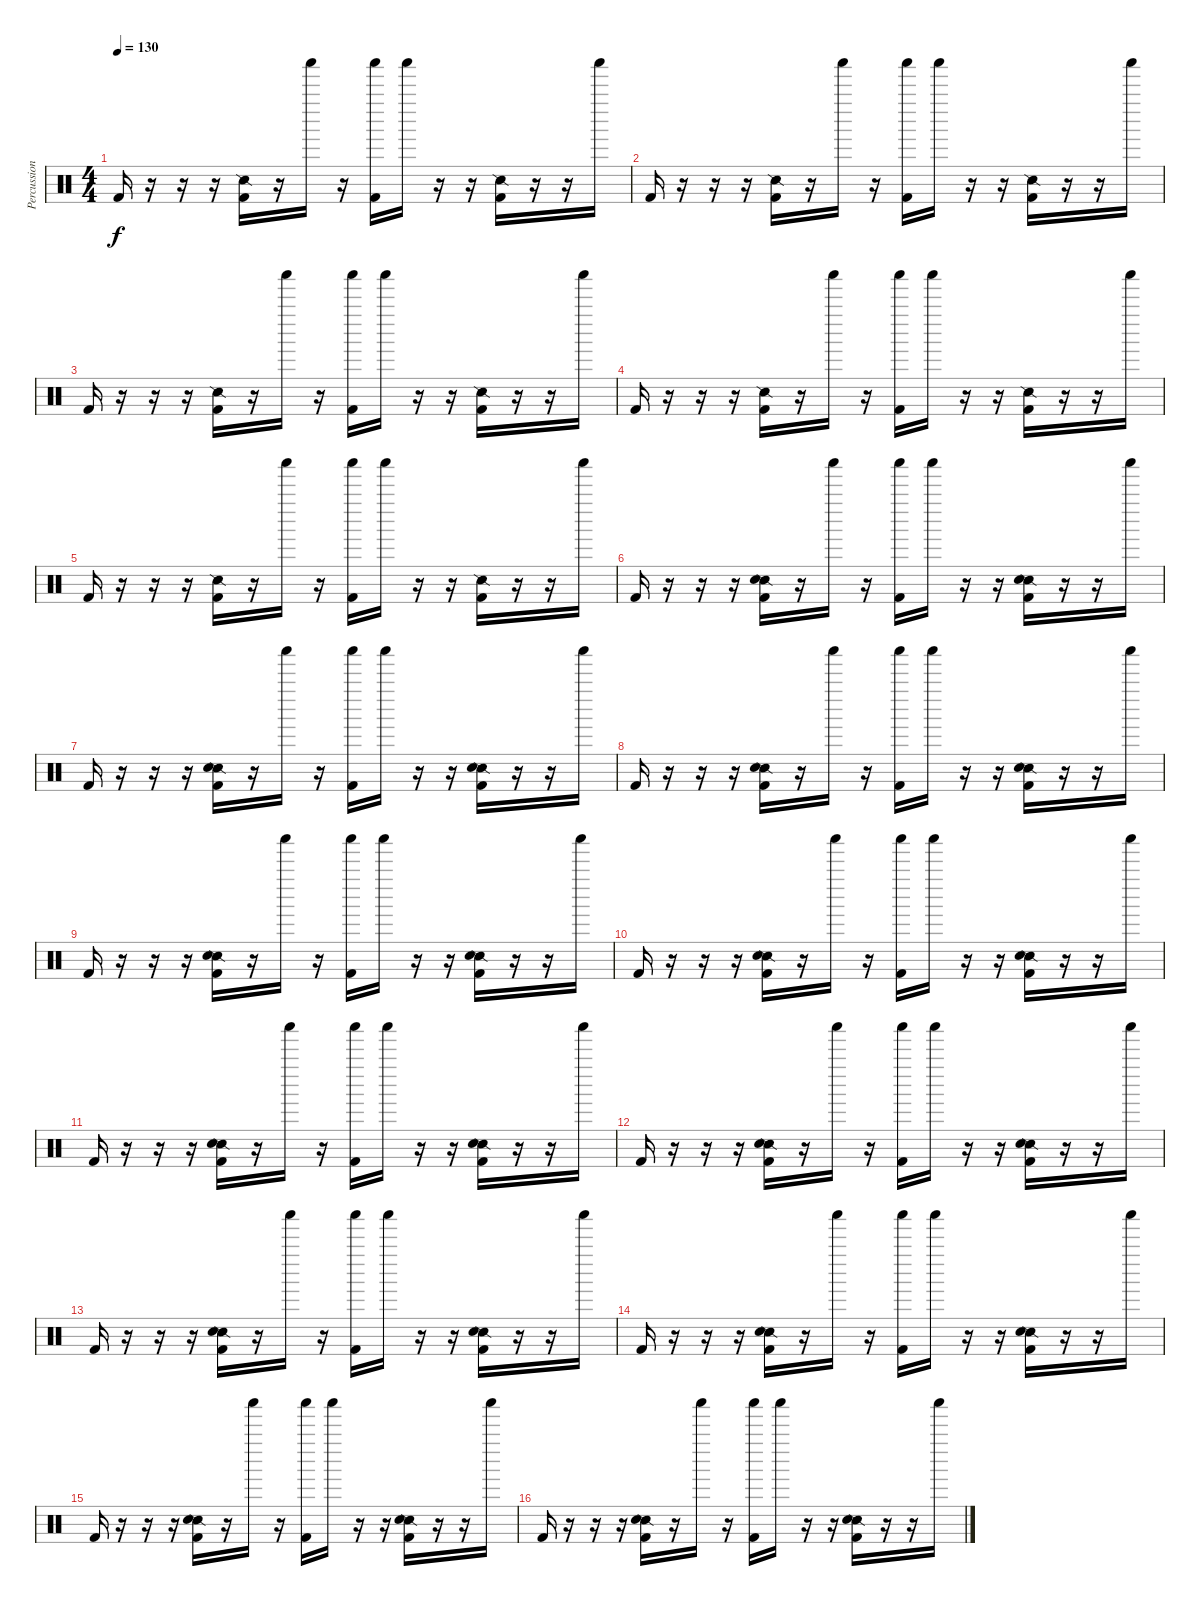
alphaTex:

\track ("Percussion" "Percussion") {instrument percussion}
\staff {score}
\articulation defaults
\ts (4 4)
\tempo 130
\clef neutral
\ks c "Kick (hit) 2".16{dy f}
r.16 r.16 r.16 ("Kick (hit) 2" "Snare (side stick) 2").16 r.16 "Shaker (hit)".16 r.16 ("Kick (hit) 2" "Shaker (hit)").16 "Shaker (hit)".16 r.16 r.16 ("Kick (hit) 2" "Snare (side stick) 2").16 r.16 r.16 "Shaker (hit)".16 |
"Kick (hit) 2".16 r.16 r.16 r.16 ("Kick (hit) 2" "Snare (side stick) 2").16 r.16 "Shaker (hit)".16 r.16 ("Kick (hit) 2" "Shaker (hit)").16 "Shaker (hit)".16 r.16 r.16 ("Kick (hit) 2" "Snare (side stick) 2").16 r.16 r.16 "Shaker (hit)".16 |
"Kick (hit) 2".16 r.16 r.16 r.16 ("Kick (hit) 2" "Snare (side stick) 2").16 r.16 "Shaker (hit)".16 r.16 ("Kick (hit) 2" "Shaker (hit)").16 "Shaker (hit)".16 r.16 r.16 ("Kick (hit) 2" "Snare (side stick) 2").16 r.16 r.16 "Shaker (hit)".16 |
"Kick (hit) 2".16 r.16 r.16 r.16 ("Kick (hit) 2" "Snare (side stick) 2").16 r.16 "Shaker (hit)".16 r.16 ("Kick (hit) 2" "Shaker (hit)").16 "Shaker (hit)".16 r.16 r.16 ("Kick (hit) 2" "Snare (side stick) 2").16 r.16 r.16 "Shaker (hit)".16 |
"Kick (hit) 2".16 r.16 r.16 r.16 ("Kick (hit) 2" "Snare (side stick) 2").16 r.16 "Shaker (hit)".16 r.16 ("Kick (hit) 2" "Shaker (hit)").16 "Shaker (hit)".16 r.16 r.16 ("Kick (hit) 2" "Snare (side stick) 2").16 r.16 r.16 "Shaker (hit)".16 |
"Kick (hit) 2".16 r.16 r.16 r.16 ("Kick (hit) 2" "Snare (side stick) 2" "Electric Snare (hit)").16 r.16 "Shaker (hit)".16 r.16 ("Kick (hit) 2" "Shaker (hit)").16 "Shaker (hit)".16 r.16 r.16 ("Kick (hit) 2" "Snare (side stick) 2" "Electric Snare (hit)").16 r.16 r.16 "Shaker (hit)".16 |
"Kick (hit) 2".16 r.16 r.16 r.16 ("Kick (hit) 2" "Snare (side stick) 2" "Electric Snare (hit)").16 r.16 "Shaker (hit)".16 r.16 ("Kick (hit) 2" "Shaker (hit)").16 "Shaker (hit)".16 r.16 r.16 ("Kick (hit) 2" "Snare (side stick) 2" "Electric Snare (hit)").16 r.16 r.16 "Shaker (hit)".16 |
"Kick (hit) 2".16 r.16 r.16 r.16 ("Kick (hit) 2" "Snare (side stick) 2" "Electric Snare (hit)").16 r.16 "Shaker (hit)".16 r.16 ("Kick (hit) 2" "Shaker (hit)").16 "Shaker (hit)".16 r.16 r.16 ("Kick (hit) 2" "Snare (side stick) 2" "Electric Snare (hit)").16 r.16 r.16 "Shaker (hit)".16 |
"Kick (hit) 2".16 r.16 r.16 r.16 ("Kick (hit) 2" "Snare (side stick) 2" "Electric Snare (hit)").16 r.16 "Shaker (hit)".16 r.16 ("Kick (hit) 2" "Shaker (hit)").16 "Shaker (hit)".16 r.16 r.16 ("Kick (hit) 2" "Snare (side stick) 2" "Electric Snare (hit)").16 r.16 r.16 "Shaker (hit)".16 |
"Kick (hit) 2".16 r.16 r.16 r.16 ("Kick (hit) 2" "Snare (side stick) 2" "Electric Snare (hit)").16 r.16 "Shaker (hit)".16 r.16 ("Kick (hit) 2" "Shaker (hit)").16 "Shaker (hit)".16 r.16 r.16 ("Kick (hit) 2" "Snare (side stick) 2" "Electric Snare (hit)").16 r.16 r.16 "Shaker (hit)".16 |
"Kick (hit) 2".16 r.16 r.16 r.16 ("Kick (hit) 2" "Snare (side stick) 2" "Electric Snare (hit)").16 r.16 "Shaker (hit)".16 r.16 ("Kick (hit) 2" "Shaker (hit)").16 "Shaker (hit)".16 r.16 r.16 ("Kick (hit) 2" "Snare (side stick) 2" "Electric Snare (hit)").16 r.16 r.16 "Shaker (hit)".16 |
"Kick (hit) 2".16 r.16 r.16 r.16 ("Kick (hit) 2" "Snare (side stick) 2" "Electric Snare (hit)").16 r.16 "Shaker (hit)".16 r.16 ("Kick (hit) 2" "Shaker (hit)").16 "Shaker (hit)".16 r.16 r.16 ("Kick (hit) 2" "Snare (side stick) 2" "Electric Snare (hit)").16 r.16 r.16 "Shaker (hit)".16 |
"Kick (hit) 2".16 r.16 r.16 r.16 ("Kick (hit) 2" "Snare (side stick) 2" "Electric Snare (hit)").16 r.16 "Shaker (hit)".16 r.16 ("Kick (hit) 2" "Shaker (hit)").16 "Shaker (hit)".16 r.16 r.16 ("Kick (hit) 2" "Snare (side stick) 2" "Electric Snare (hit)").16 r.16 r.16 "Shaker (hit)".16 |
"Kick (hit) 2".16 r.16 r.16 r.16 ("Kick (hit) 2" "Snare (side stick) 2" "Electric Snare (hit)").16 r.16 "Shaker (hit)".16 r.16 ("Kick (hit) 2" "Shaker (hit)").16 "Shaker (hit)".16 r.16 r.16 ("Kick (hit) 2" "Snare (side stick) 2" "Electric Snare (hit)").16 r.16 r.16 "Shaker (hit)".16 |
"Kick (hit) 2".16 r.16 r.16 r.16 ("Kick (hit) 2" "Snare (side stick) 2" "Electric Snare (hit)").16 r.16 "Shaker (hit)".16 r.16 ("Kick (hit) 2" "Shaker (hit)").16 "Shaker (hit)".16 r.16 r.16 ("Kick (hit) 2" "Snare (side stick) 2" "Electric Snare (hit)").16 r.16 r.16 "Shaker (hit)".16 |
"Kick (hit) 2".16 r.16 r.16 r.16 ("Kick (hit) 2" "Snare (side stick) 2" "Electric Snare (hit)").16 r.16 "Shaker (hit)".16 r.16 ("Kick (hit) 2" "Shaker (hit)").16 "Shaker (hit)".16 r.16 r.16 ("Kick (hit) 2" "Snare (side stick) 2" "Electric Snare (hit)").16 r.16 r.16 "Shaker (hit)".16
